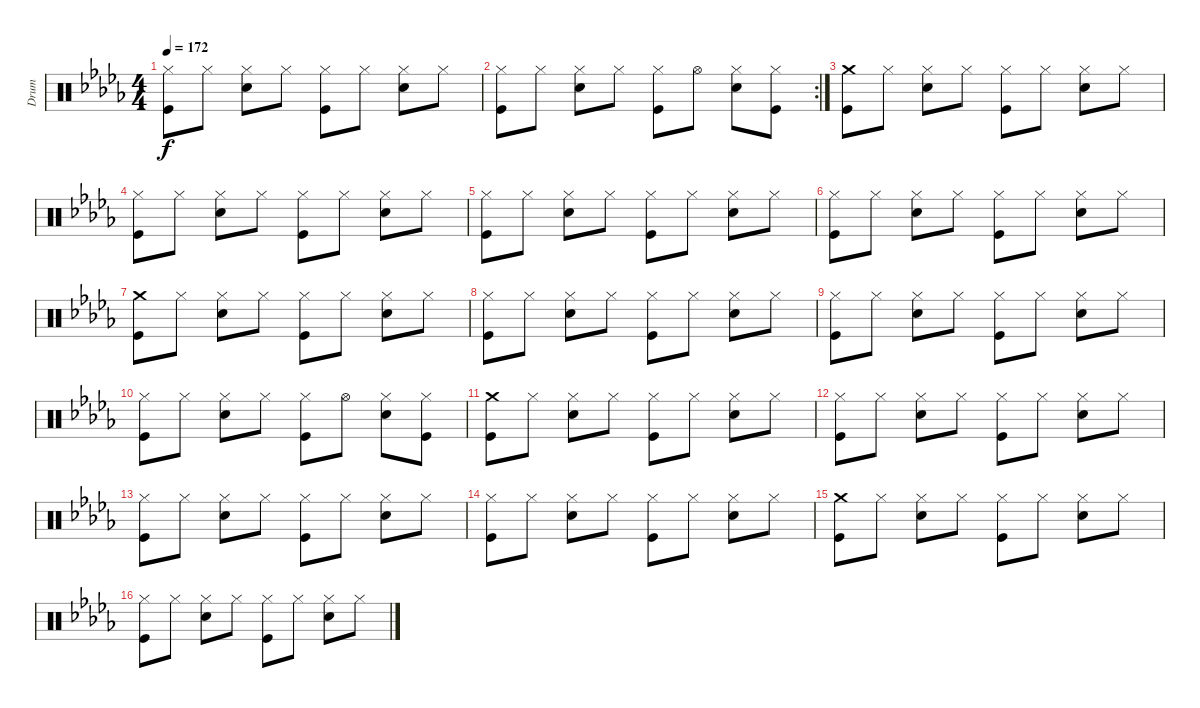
\track ("Drum" "Drum") {instrument percussion}
\staff {score}
\articulation defaults
\ts (4 4)
\tempo 172
\clef neutral
\ks db
("Hi-Hat (closed)" "Kick (hit)").8{dy f} "Hi-Hat (closed)".8 ("Hi-Hat (closed)" "Snare (hit) 2").8 "Hi-Hat (closed)".8 ("Hi-Hat (closed)" "Kick (hit)").8 "Hi-Hat (closed)".8 ("Hi-Hat (closed)" "Snare (hit) 2").8 "Hi-Hat (closed)".8 |
\rc 2
("Hi-Hat (closed)" "Kick (hit)").8 "Hi-Hat (closed)".8 ("Hi-Hat (closed)" "Snare (hit) 2").8 "Hi-Hat (closed)".8 ("Hi-Hat (closed)" "Kick (hit)").8 "Hi-Hat (open)".8 ("Hi-Hat (closed)" "Snare (hit) 2").8 ("Hi-Hat (closed)" "Kick (hit)").8 |
("Crash medium (hit)" "Kick (hit)").8 "Hi-Hat (closed)".8 ("Hi-Hat (closed)" "Snare (hit) 2").8 "Hi-Hat (closed)".8 ("Hi-Hat (closed)" "Kick (hit)").8 "Hi-Hat (closed)".8 ("Hi-Hat (closed)" "Snare (hit) 2").8 "Hi-Hat (closed)".8 |
("Hi-Hat (closed)" "Kick (hit)").8 "Hi-Hat (closed)".8 ("Hi-Hat (closed)" "Snare (hit) 2").8 "Hi-Hat (closed)".8 ("Hi-Hat (closed)" "Kick (hit)").8 "Hi-Hat (closed)".8 ("Hi-Hat (closed)" "Snare (hit) 2").8 "Hi-Hat (closed)".8 |
("Hi-Hat (closed)" "Kick (hit)").8 "Hi-Hat (closed)".8 ("Hi-Hat (closed)" "Snare (hit) 2").8 "Hi-Hat (closed)".8 ("Hi-Hat (closed)" "Kick (hit)").8 "Hi-Hat (closed)".8 ("Hi-Hat (closed)" "Snare (hit) 2").8 "Hi-Hat (closed)".8 |
("Hi-Hat (closed)" "Kick (hit)").8 "Hi-Hat (closed)".8 ("Hi-Hat (closed)" "Snare (hit) 2").8 "Hi-Hat (closed)".8 ("Hi-Hat (closed)" "Kick (hit)").8 "Hi-Hat (closed)".8 ("Hi-Hat (closed)" "Snare (hit) 2").8 "Hi-Hat (closed)".8 |
("Crash medium (hit)" "Kick (hit)").8 "Hi-Hat (closed)".8 ("Hi-Hat (closed)" "Snare (hit) 2").8 "Hi-Hat (closed)".8 ("Hi-Hat (closed)" "Kick (hit)").8 "Hi-Hat (closed)".8 ("Hi-Hat (closed)" "Snare (hit) 2").8 "Hi-Hat (closed)".8 |
("Hi-Hat (closed)" "Kick (hit)").8 "Hi-Hat (closed)".8 ("Hi-Hat (closed)" "Snare (hit) 2").8 "Hi-Hat (closed)".8 ("Hi-Hat (closed)" "Kick (hit)").8 "Hi-Hat (closed)".8 ("Hi-Hat (closed)" "Snare (hit) 2").8 "Hi-Hat (closed)".8 |
("Hi-Hat (closed)" "Kick (hit)").8 "Hi-Hat (closed)".8 ("Hi-Hat (closed)" "Snare (hit) 2").8 "Hi-Hat (closed)".8 ("Hi-Hat (closed)" "Kick (hit)").8 "Hi-Hat (closed)".8 ("Hi-Hat (closed)" "Snare (hit) 2").8 "Hi-Hat (closed)".8 |
("Hi-Hat (closed)" "Kick (hit)").8 "Hi-Hat (closed)".8 ("Hi-Hat (closed)" "Snare (hit) 2").8 "Hi-Hat (closed)".8 ("Hi-Hat (closed)" "Kick (hit)").8 "Hi-Hat (open)".8 ("Hi-Hat (closed)" "Snare (hit) 2").8 ("Hi-Hat (closed)" "Kick (hit)").8 |
("Crash medium (hit)" "Kick (hit)").8 "Hi-Hat (closed)".8 ("Hi-Hat (closed)" "Snare (hit) 2").8 "Hi-Hat (closed)".8 ("Hi-Hat (closed)" "Kick (hit)").8 "Hi-Hat (closed)".8 ("Hi-Hat (closed)" "Snare (hit) 2").8 "Hi-Hat (closed)".8 |
("Hi-Hat (closed)" "Kick (hit)").8 "Hi-Hat (closed)".8 ("Hi-Hat (closed)" "Snare (hit) 2").8 "Hi-Hat (closed)".8 ("Hi-Hat (closed)" "Kick (hit)").8 "Hi-Hat (closed)".8 ("Hi-Hat (closed)" "Snare (hit) 2").8 "Hi-Hat (closed)".8 |
("Hi-Hat (closed)" "Kick (hit)").8 "Hi-Hat (closed)".8 ("Hi-Hat (closed)" "Snare (hit) 2").8 "Hi-Hat (closed)".8 ("Hi-Hat (closed)" "Kick (hit)").8 "Hi-Hat (closed)".8 ("Hi-Hat (closed)" "Snare (hit) 2").8 "Hi-Hat (closed)".8 |
("Hi-Hat (closed)" "Kick (hit)").8 "Hi-Hat (closed)".8 ("Hi-Hat (closed)" "Snare (hit) 2").8 "Hi-Hat (closed)".8 ("Hi-Hat (closed)" "Kick (hit)").8 "Hi-Hat (closed)".8 ("Hi-Hat (closed)" "Snare (hit) 2").8 "Hi-Hat (closed)".8 |
("Crash medium (hit)" "Kick (hit)").8 "Hi-Hat (closed)".8 ("Hi-Hat (closed)" "Snare (hit) 2").8 "Hi-Hat (closed)".8 ("Hi-Hat (closed)" "Kick (hit)").8 "Hi-Hat (closed)".8 ("Hi-Hat (closed)" "Snare (hit) 2").8 "Hi-Hat (closed)".8 |
("Hi-Hat (closed)" "Kick (hit)").8 "Hi-Hat (closed)".8 ("Hi-Hat (closed)" "Snare (hit) 2").8 "Hi-Hat (closed)".8 ("Hi-Hat (closed)" "Kick (hit)").8 "Hi-Hat (closed)".8 ("Hi-Hat (closed)" "Snare (hit) 2").8 "Hi-Hat (closed)".8
